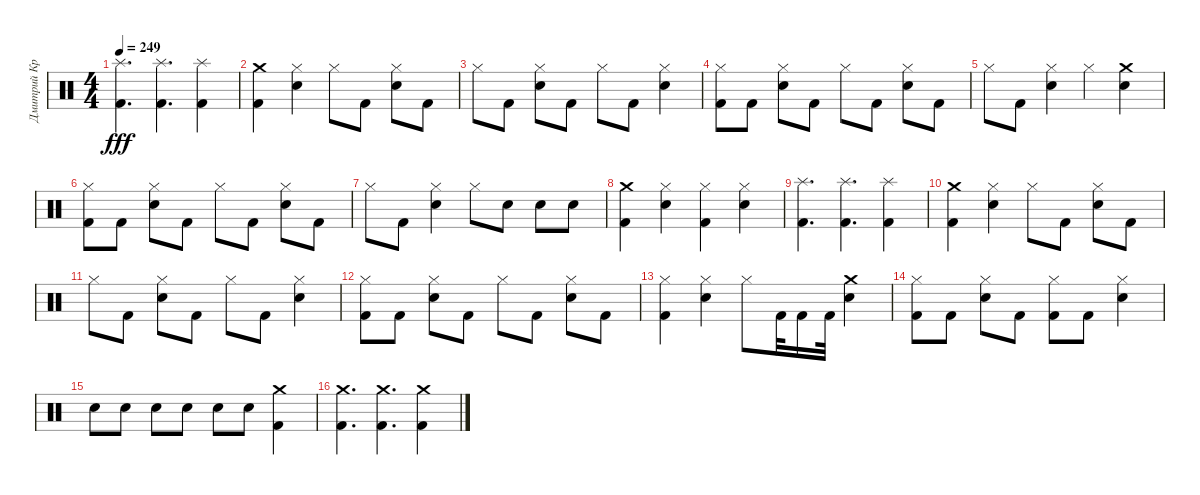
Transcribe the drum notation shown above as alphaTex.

\track ("Дмитрий Кривенков" "Дмитрий Кр") {instrument percussion}
\staff {score}
\articulation defaults
\ts (4 4)
\tempo 249
\clef neutral
\ks c
("Kick (hit) 2" "Splash (hit)").4{d dy fff} ("Kick (hit) 2" "Splash (hit)").4{d} ("Kick (hit) 2" "Splash (hit)").4 |
("Kick (hit) 2" "Crash medium (hit)").4 ("Hi-Hat (closed)" "Electric Snare (hit)").4 "Hi-Hat (closed)".8 "Kick (hit) 2".8 ("Hi-Hat (closed)" "Electric Snare (hit)").8 "Kick (hit) 2".8 |
"Hi-Hat (closed)".8 "Kick (hit) 2".8 ("Hi-Hat (closed)" "Electric Snare (hit)").8 "Kick (hit) 2".8 "Hi-Hat (closed)".8 "Kick (hit) 2".8 ("Hi-Hat (closed)" "Electric Snare (hit)").4 |
("Kick (hit) 2" "Hi-Hat (closed)").8 "Kick (hit) 2".8 ("Hi-Hat (closed)" "Electric Snare (hit)").8 "Kick (hit) 2".8 "Hi-Hat (closed)".8 "Kick (hit) 2".8 ("Hi-Hat (closed)" "Electric Snare (hit)").8 "Kick (hit) 2".8 |
"Hi-Hat (closed)".8 "Kick (hit) 2".8 ("Hi-Hat (closed)" "Electric Snare (hit)").4 "Hi-Hat (closed)".4 ("Crash medium (hit)" "Electric Snare (hit)").4 |
("Kick (hit) 2" "Hi-Hat (closed)").8 "Kick (hit) 2".8 ("Hi-Hat (closed)" "Electric Snare (hit)").8 "Kick (hit) 2".8 "Hi-Hat (closed)".8 "Kick (hit) 2".8 ("Hi-Hat (closed)" "Electric Snare (hit)").8 "Kick (hit) 2".8 |
"Hi-Hat (closed)".8 "Kick (hit) 2".8 ("Hi-Hat (closed)" "Electric Snare (hit)").4 "Hi-Hat (closed)".8 "Electric Snare (hit)".8 "Electric Snare (hit)".8 "Electric Snare (hit)".8 |
("Kick (hit) 2" "Crash medium (hit)").4 ("Hi-Hat (closed)" "Electric Snare (hit)").4 ("Kick (hit) 2" "Hi-Hat (closed)").4 ("Hi-Hat (closed)" "Electric Snare (hit)").4 |
("Kick (hit) 2" "Splash (hit)").4{d} ("Kick (hit) 2" "Splash (hit)").4{d} ("Kick (hit) 2" "Splash (hit)").4 |
("Kick (hit) 2" "Crash medium (hit)").4 ("Hi-Hat (closed)" "Electric Snare (hit)").4 "Hi-Hat (closed)".8 "Kick (hit) 2".8 ("Hi-Hat (closed)" "Electric Snare (hit)").8 "Kick (hit) 2".8 |
"Hi-Hat (closed)".8 "Kick (hit) 2".8 ("Hi-Hat (closed)" "Electric Snare (hit)").8 "Kick (hit) 2".8 "Hi-Hat (closed)".8 "Kick (hit) 2".8 ("Hi-Hat (closed)" "Electric Snare (hit)").4 |
("Kick (hit) 2" "Hi-Hat (closed)").8 "Kick (hit) 2".8 ("Hi-Hat (closed)" "Electric Snare (hit)").8 "Kick (hit) 2".8 "Hi-Hat (closed)".8 "Kick (hit) 2".8 ("Hi-Hat (closed)" "Electric Snare (hit)").8 "Kick (hit) 2".8 |
("Kick (hit) 2" "Hi-Hat (closed)").4 ("Hi-Hat (closed)" "Electric Snare (hit)").4 "Hi-Hat (closed)".8 "Kick (hit) 2".32 "Kick (hit) 2".16 "Kick (hit) 2".32 ("Crash medium (hit)" "Electric Snare (hit)").4 |
("Kick (hit) 2" "Hi-Hat (closed)").8 "Kick (hit) 2".8 ("Hi-Hat (closed)" "Electric Snare (hit)").8 "Kick (hit) 2".8 ("Kick (hit) 2" "Hi-Hat (closed)").8 "Kick (hit) 2".8 ("Hi-Hat (closed)" "Electric Snare (hit)").4 |
"Electric Snare (hit)".8 "Electric Snare (hit)".8 "Electric Snare (hit)".8 "Electric Snare (hit)".8 "Electric Snare (hit)".8 "Electric Snare (hit)".8 ("Kick (hit) 2" "Crash medium (hit)").4 |
("Kick (hit) 2" "Crash medium (hit)").4{d} ("Kick (hit) 2" "Crash medium (hit)").4{d} ("Kick (hit) 2" "Crash medium (hit)").4
